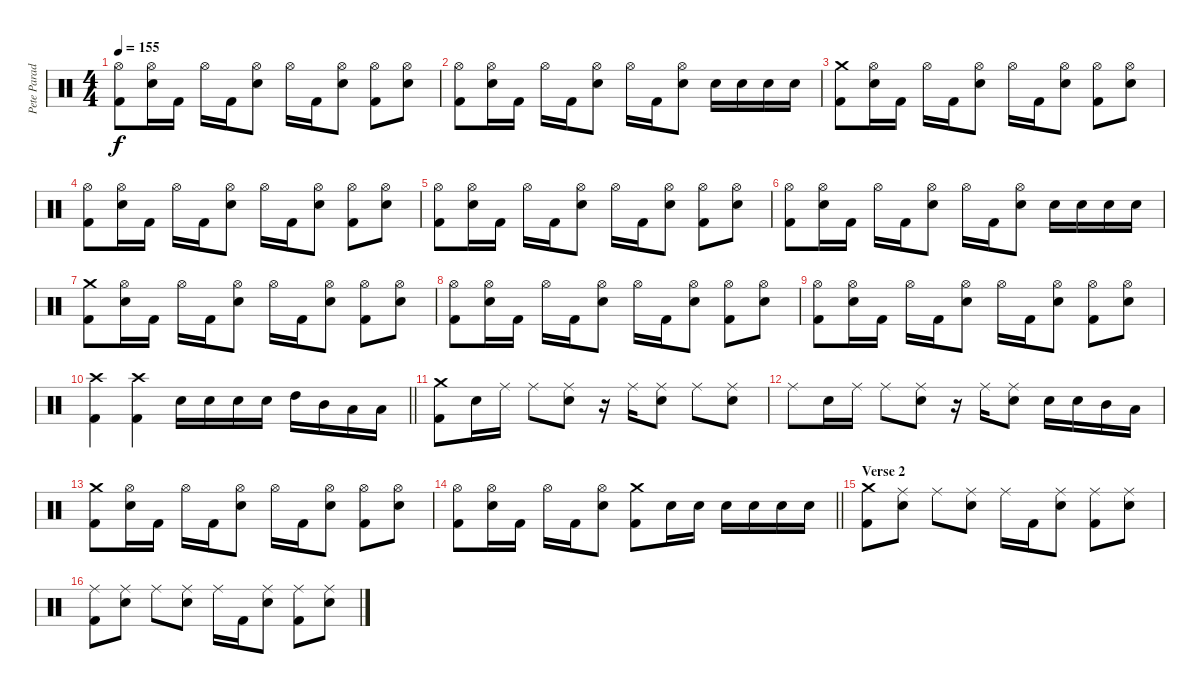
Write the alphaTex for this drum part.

\track ("Pete Parada - Drums" "Pete Parad") {instrument percussion}
\staff {score}
\articulation defaults
\ts (4 4)
\tempo 155
\clef neutral
\ks c
("Hi-Hat (open)" "Kick (hit) 2").8{dy f} ("Hi-Hat (open)" "Electric Snare (hit)").16 "Kick (hit) 2".16 "Hi-Hat (open)".16 "Kick (hit) 2".16 ("Hi-Hat (open)" "Electric Snare (hit)").8 "Hi-Hat (open)".16 "Kick (hit) 2".16 ("Hi-Hat (open)" "Electric Snare (hit)").8 ("Hi-Hat (open)" "Kick (hit) 2").8 ("Hi-Hat (open)" "Electric Snare (hit)").8 |
("Hi-Hat (open)" "Kick (hit) 2").8 ("Hi-Hat (open)" "Electric Snare (hit)").16 "Kick (hit) 2".16 "Hi-Hat (open)".16 "Kick (hit) 2".16 ("Hi-Hat (open)" "Electric Snare (hit)").8 "Hi-Hat (open)".16 "Kick (hit) 2".16 ("Hi-Hat (open)" "Electric Snare (hit)").8 "Electric Snare (hit)".16 "Electric Snare (hit)".16 "Electric Snare (hit)".16 "Electric Snare (hit)".16 |
("Crash medium (hit)" "Kick (hit) 2").8 ("Hi-Hat (open)" "Electric Snare (hit)").16 "Kick (hit) 2".16 "Hi-Hat (open)".16 "Kick (hit) 2".16 ("Hi-Hat (open)" "Electric Snare (hit)").8 "Hi-Hat (open)".16 "Kick (hit) 2".16 ("Hi-Hat (open)" "Electric Snare (hit)").8 ("Hi-Hat (open)" "Kick (hit) 2").8 ("Hi-Hat (open)" "Electric Snare (hit)").8 |
("Hi-Hat (open)" "Kick (hit) 2").8 ("Hi-Hat (open)" "Electric Snare (hit)").16 "Kick (hit) 2".16 "Hi-Hat (open)".16 "Kick (hit) 2".16 ("Hi-Hat (open)" "Electric Snare (hit)").8 "Hi-Hat (open)".16 "Kick (hit) 2".16 ("Hi-Hat (open)" "Electric Snare (hit)").8 ("Hi-Hat (open)" "Kick (hit) 2").8 ("Hi-Hat (open)" "Electric Snare (hit)").8 |
("Hi-Hat (open)" "Kick (hit) 2").8 ("Hi-Hat (open)" "Electric Snare (hit)").16 "Kick (hit) 2".16 "Hi-Hat (open)".16 "Kick (hit) 2".16 ("Hi-Hat (open)" "Electric Snare (hit)").8 "Hi-Hat (open)".16 "Kick (hit) 2".16 ("Hi-Hat (open)" "Electric Snare (hit)").8 ("Hi-Hat (open)" "Kick (hit) 2").8 ("Hi-Hat (open)" "Electric Snare (hit)").8 |
("Hi-Hat (open)" "Kick (hit) 2").8 ("Hi-Hat (open)" "Electric Snare (hit)").16 "Kick (hit) 2".16 "Hi-Hat (open)".16 "Kick (hit) 2".16 ("Hi-Hat (open)" "Electric Snare (hit)").8 "Hi-Hat (open)".16 "Kick (hit) 2".16 ("Hi-Hat (open)" "Electric Snare (hit)").8 "Electric Snare (hit)".16 "Electric Snare (hit)".16 "Electric Snare (hit)".16 "Electric Snare (hit)".16 |
("Crash medium (hit)" "Kick (hit) 2").8 ("Hi-Hat (open)" "Electric Snare (hit)").16 "Kick (hit) 2".16 "Hi-Hat (open)".16 "Kick (hit) 2".16 ("Hi-Hat (open)" "Electric Snare (hit)").8 "Hi-Hat (open)".16 "Kick (hit) 2".16 ("Hi-Hat (open)" "Electric Snare (hit)").8 ("Hi-Hat (open)" "Kick (hit) 2").8 ("Hi-Hat (open)" "Electric Snare (hit)").8 |
("Hi-Hat (open)" "Kick (hit) 2").8 ("Hi-Hat (open)" "Electric Snare (hit)").16 "Kick (hit) 2".16 "Hi-Hat (open)".16 "Kick (hit) 2".16 ("Hi-Hat (open)" "Electric Snare (hit)").8 "Hi-Hat (open)".16 "Kick (hit) 2".16 ("Hi-Hat (open)" "Electric Snare (hit)").8 ("Hi-Hat (open)" "Kick (hit) 2").8 ("Hi-Hat (open)" "Electric Snare (hit)").8 |
("Hi-Hat (open)" "Kick (hit) 2").8 ("Hi-Hat (open)" "Electric Snare (hit)").16 "Kick (hit) 2".16 "Hi-Hat (open)".16 "Kick (hit) 2".16 ("Hi-Hat (open)" "Electric Snare (hit)").8 "Hi-Hat (open)".16 "Kick (hit) 2".16 ("Hi-Hat (open)" "Electric Snare (hit)").8 ("Hi-Hat (open)" "Kick (hit) 2").8 ("Hi-Hat (open)" "Electric Snare (hit)").8 |
\barLineRight lightlight
("Crash high (hit)" "Kick (hit) 2").4 ("Crash high (hit)" "Kick (hit) 2").4 "Electric Snare (hit)".16 "Electric Snare (hit)".16 "Electric Snare (hit)".16 "Electric Snare (hit)".16 "High Tom (hit)".16 "Mid Tom (hit)".16 "Low Tom (hit)".16 "Low Tom (hit)".16 |
("Crash medium (hit)" "Kick (hit) 2").8 "Electric Snare (hit)".16 "Ride (middle)".16 "Ride (middle)".8 ("Ride (middle)" "Electric Snare (hit)").8 r.16 "Ride (middle)".16 ("Ride (middle)" "Electric Snare (hit)").8 "Ride (middle)".8 ("Ride (middle)" "Electric Snare (hit)").8 |
"Ride (middle)".8 "Electric Snare (hit)".16 "Ride (middle)".16 "Ride (middle)".8 ("Ride (middle)" "Electric Snare (hit)").8 r.16 "Ride (middle)".16 ("Ride (middle)" "Electric Snare (hit)").8 "Electric Snare (hit)".16 "Electric Snare (hit)".16 "Mid Tom (hit)".16 "Low Tom (hit)".16 |
("Crash medium (hit)" "Kick (hit) 2").8 ("Hi-Hat (open)" "Electric Snare (hit)").16 "Kick (hit) 2".16 "Hi-Hat (open)".16 "Kick (hit) 2".16 ("Hi-Hat (open)" "Electric Snare (hit)").8 "Hi-Hat (open)".16 "Kick (hit) 2".16 ("Hi-Hat (open)" "Electric Snare (hit)").8 ("Hi-Hat (open)" "Kick (hit) 2").8 ("Hi-Hat (open)" "Electric Snare (hit)").8 |
\barLineRight lightlight
("Hi-Hat (open)" "Kick (hit) 2").8 ("Hi-Hat (open)" "Electric Snare (hit)").16 "Kick (hit) 2".16 "Hi-Hat (open)".16 "Kick (hit) 2".16 ("Hi-Hat (open)" "Electric Snare (hit)").8 ("Crash medium (hit)" "Kick (hit) 2").8 "Electric Snare (hit)".16 "Electric Snare (hit)".16 "Electric Snare (hit)".16 "Electric Snare (hit)".16 "Electric Snare (hit)".16 "Electric Snare (hit)".16 |
\section ("" "Verse 2")
("Crash medium (hit)" "Kick (hit) 2").8 ("Ride (middle)" "Electric Snare (hit)").8 "Ride (middle)".8 ("Ride (middle)" "Electric Snare (hit)").8 "Ride (middle)".16 "Kick (hit) 2".16 ("Ride (middle)" "Electric Snare (hit)").8 ("Ride (middle)" "Kick (hit) 2").8 ("Ride (middle)" "Electric Snare (hit)").8 |
("Ride (middle)" "Kick (hit) 2").8 ("Ride (middle)" "Electric Snare (hit)").8 "Ride (middle)".8 ("Ride (middle)" "Electric Snare (hit)").8 "Ride (middle)".16 "Kick (hit) 2".16 ("Ride (middle)" "Electric Snare (hit)").8 ("Ride (middle)" "Kick (hit) 2").8 ("Ride (middle)" "Electric Snare (hit)").8
